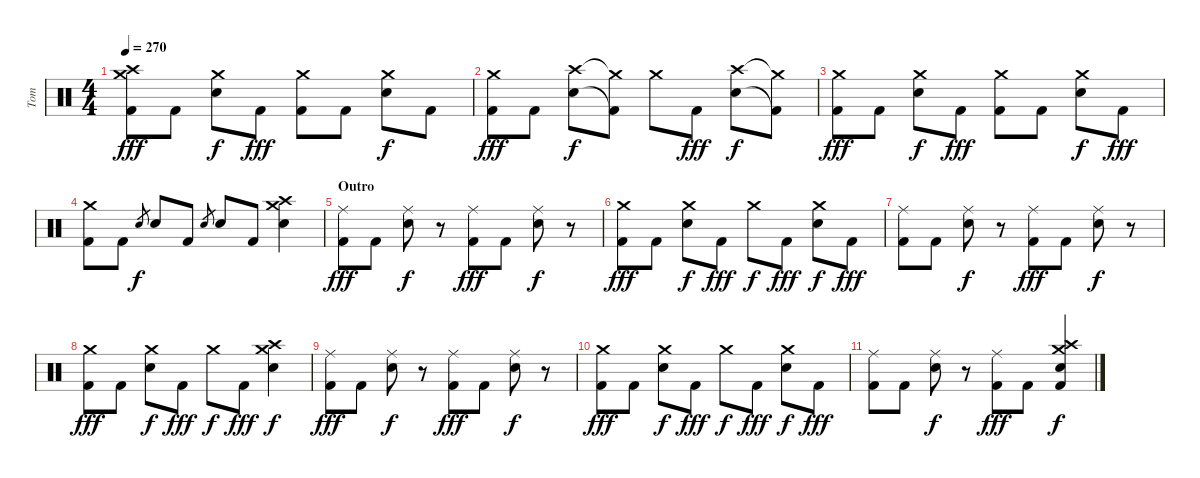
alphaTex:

\track ("Tom" "Tom") {instrument percussion}
\staff {score}
\articulation defaults
\ts (4 4)
\tempo 270
\clef neutral
\ks c
("Kick (hit) 2" "Crash medium (hit)" "Crash high (hit)").8{dy fff} "Kick (hit) 2".8 ("Electric Snare (hit)" "Crash medium (hit)").8{dy f} "Kick (hit) 2".8{dy fff} ("Kick (hit) 2" "Crash medium (hit)").8 "Kick (hit) 2".8 ("Electric Snare (hit)" "Crash medium (hit)").8{dy f} "Kick (hit) 2".8 |
("Kick (hit) 2" "Crash medium (hit)").8{dy fff} "Kick (hit) 2".8 ("Electric Snare (hit)" "Crash high (hit)").8{dy f} ("Kick (hit) 2"{t} "Crash medium (hit)"{t}).8 "Crash medium (hit)".8 "Kick (hit) 2".8{dy fff} ("Electric Snare (hit)" "Crash high (hit)").8{dy f} ("Kick (hit) 2"{t} "Crash medium (hit)"{t}).8 |
("Kick (hit) 2" "Crash medium (hit)").8{dy fff} "Kick (hit) 2".8 ("Electric Snare (hit)" "Crash medium (hit)").8{dy f} "Kick (hit) 2".8{dy fff} ("Kick (hit) 2" "Crash medium (hit)").8 "Kick (hit) 2".8 ("Electric Snare (hit)" "Crash medium (hit)").8{dy f} "Kick (hit) 2".8{dy fff} |
("Kick (hit) 2" "Crash medium (hit)").8 "Kick (hit) 2".8 "Electric Snare (hit)".8{gr dy f} "Electric Snare (hit)".8 "Kick (hit) 2".8 "Electric Snare (hit)".8{gr} "Electric Snare (hit)".8 "Kick (hit) 2".8 ("Electric Snare (hit)" "Crash high (hit)" "Crash medium (hit)").4 |
\section ("" "Outro")
("Kick (hit) 2" "Ride (middle)").8{dy fff} "Kick (hit) 2".8 ("Electric Snare (hit)" "Ride (middle)").8{dy f} r.8 ("Kick (hit) 2" "Ride (middle)").8{dy fff} "Kick (hit) 2".8 ("Electric Snare (hit)" "Ride (middle)").8{dy f} r.8 |
("Kick (hit) 2" "Crash medium (hit)").8{dy fff} "Kick (hit) 2".8 ("Electric Snare (hit)" "Crash medium (hit)").8{dy f} "Kick (hit) 2".8{dy fff} "Crash medium (hit)".8{dy f} "Kick (hit) 2".8{dy fff} ("Electric Snare (hit)" "Crash medium (hit)").8{dy f} "Kick (hit) 2".8{dy fff} |
("Kick (hit) 2" "Ride (middle)").8 "Kick (hit) 2".8 ("Electric Snare (hit)" "Ride (middle)").8{dy f} r.8 ("Kick (hit) 2" "Ride (middle)").8{dy fff} "Kick (hit) 2".8 ("Electric Snare (hit)" "Ride (middle)").8{dy f} r.8 |
("Kick (hit) 2" "Crash medium (hit)").8{dy fff} "Kick (hit) 2".8 ("Electric Snare (hit)" "Crash medium (hit)").8{dy f} "Kick (hit) 2".8{dy fff} "Crash medium (hit)".8{dy f} "Kick (hit) 2".8{dy fff} ("Electric Snare (hit)" "Crash medium (hit)" "Crash high (hit)").4{dy f} |
("Kick (hit) 2" "Ride (middle)").8{dy fff} "Kick (hit) 2".8 ("Electric Snare (hit)" "Ride (middle)").8{dy f} r.8 ("Kick (hit) 2" "Ride (middle)").8{dy fff} "Kick (hit) 2".8 ("Electric Snare (hit)" "Ride (middle)").8{dy f} r.8 |
("Kick (hit) 2" "Crash medium (hit)").8{dy fff} "Kick (hit) 2".8 ("Electric Snare (hit)" "Crash medium (hit)").8{dy f} "Kick (hit) 2".8{dy fff} "Crash medium (hit)".8{dy f} "Kick (hit) 2".8{dy fff} ("Electric Snare (hit)" "Crash medium (hit)").8{dy f} "Kick (hit) 2".8{dy fff} |
("Kick (hit) 2" "Ride (middle)").8 "Kick (hit) 2".8 ("Electric Snare (hit)" "Ride (middle)").8{dy f} r.8 ("Kick (hit) 2" "Ride (middle)").8{dy fff} "Kick (hit) 2".8 ("Crash high (hit)" "Electric Snare (hit)" "Kick (hit) 2" "Crash medium (hit)").4{dy f}
